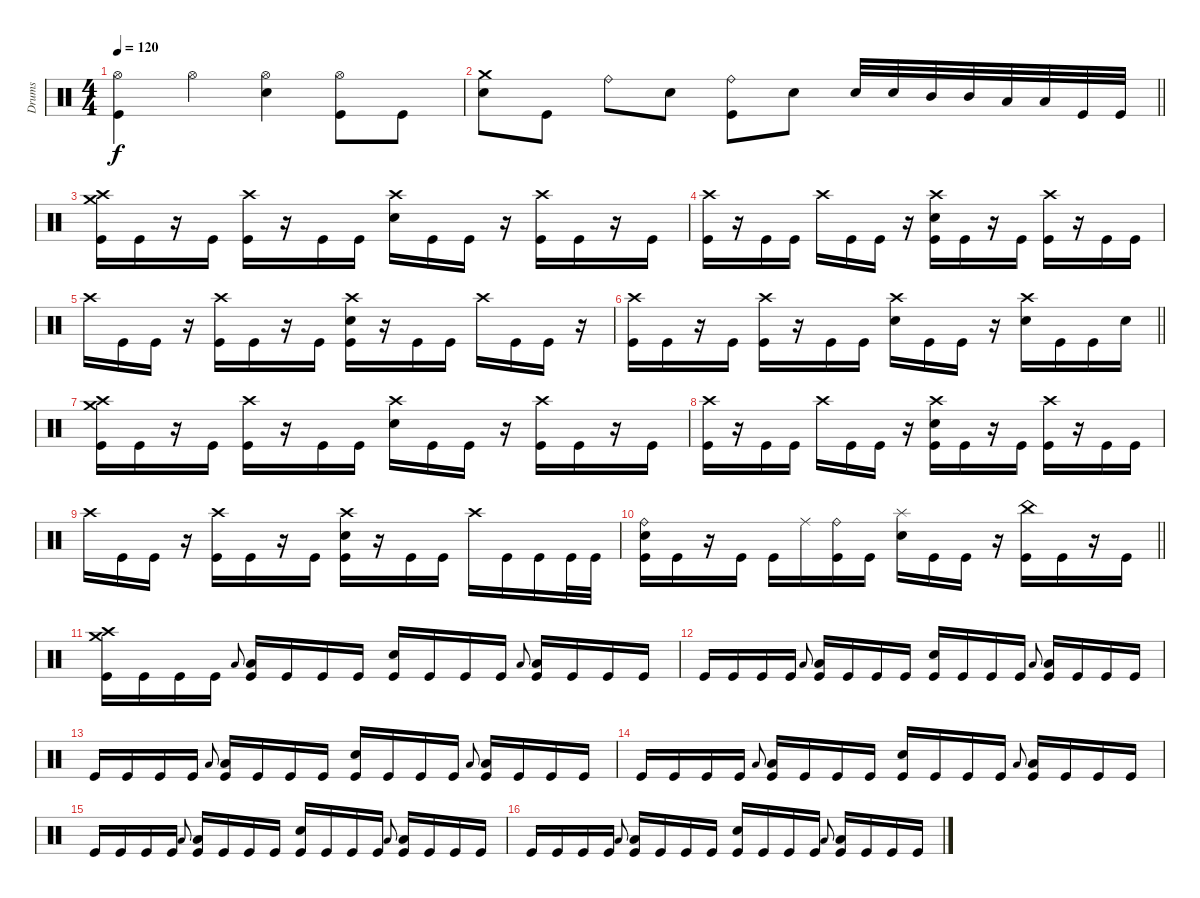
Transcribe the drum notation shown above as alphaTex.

\track ("Drums" "Drums") {instrument percussion}
\staff
\articulation defaults
\ts (4 4)
\tempo 120
\clef neutral
\ks c
("Hi-Hat (open)" "Kick (hit)").4{dy f} "Hi-Hat (open)".4 ("Hi-Hat (open)" "Electric Snare (hit)").4 ("Hi-Hat (open)" "Kick (hit)").8 "Kick (hit)".8 |
\barLineRight lightlight
("Crash medium (hit)" "Electric Snare (hit)").8 "Kick (hit)".8 "Ride (bell)".8 "Electric Snare (hit)".8 ("Ride (bell)" "Kick (hit)").8 "Electric Snare (hit)".8 "Electric Snare (hit)".32 "Electric Snare (hit)".32 "Mid Tom (hit)".32 "Mid Tom (hit)".32 "Low Tom (hit)".32 "Low Tom (hit)".32 "Kick (hit)".32 "Kick (hit)".32 |
\section ("" "")
("Crash high (hit)" "Crash medium (hit)" "Kick (hit)").16 "Kick (hit)".16 r.16 "Kick (hit)".16 ("Crash high (hit)" "Kick (hit)").16 r.16 "Kick (hit)".16 "Kick (hit)".16 ("Crash high (hit)" "Electric Snare (hit)").16 "Kick (hit)".16 "Kick (hit)".16 r.16 ("Crash high (hit)" "Kick (hit)").16 "Kick (hit)".16 r.16 "Kick (hit)".16 |
("Crash high (hit)" "Kick (hit)").16 r.16 "Kick (hit)".16 "Kick (hit)".16 "Crash high (hit)".16 "Kick (hit)".16 "Kick (hit)".16 r.16 ("Crash high (hit)" "Electric Snare (hit)" "Kick (hit)").16 "Kick (hit)".16 r.16 "Kick (hit)".16 ("Crash high (hit)" "Kick (hit)").16 r.16 "Kick (hit)".16 "Kick (hit)".16 |
"Crash high (hit)".16 "Kick (hit)".16 "Kick (hit)".16 r.16 ("Crash high (hit)" "Kick (hit)").16 "Kick (hit)".16 r.16 "Kick (hit)".16 ("Crash high (hit)" "Electric Snare (hit)" "Kick (hit)").16 r.16 "Kick (hit)".16 "Kick (hit)".16 "Crash high (hit)".16 "Kick (hit)".16 "Kick (hit)".16 r.16 |
\barLineRight lightlight
("Crash high (hit)" "Kick (hit)").16 "Kick (hit)".16 r.16 "Kick (hit)".16 ("Crash high (hit)" "Kick (hit)").16 r.16 "Kick (hit)".16 "Kick (hit)".16 ("Crash high (hit)" "Electric Snare (hit)").16 "Kick (hit)".16 "Kick (hit)".16 r.16 ("Crash high (hit)" "Electric Snare (hit)").16 "Kick (hit)".16 "Kick (hit)".16 "Electric Snare (hit)".16 |
("Crash high (hit)" "Crash medium (hit)" "Kick (hit)").16 "Kick (hit)".16 r.16 "Kick (hit)".16 ("Crash high (hit)" "Kick (hit)").16 r.16 "Kick (hit)".16 "Kick (hit)".16 ("Crash high (hit)" "Electric Snare (hit)").16 "Kick (hit)".16 "Kick (hit)".16 r.16 ("Crash high (hit)" "Kick (hit)").16 "Kick (hit)".16 r.16 "Kick (hit)".16 |
("Crash high (hit)" "Kick (hit)").16 r.16 "Kick (hit)".16 "Kick (hit)".16 "Crash high (hit)".16 "Kick (hit)".16 "Kick (hit)".16 r.16 ("Crash high (hit)" "Electric Snare (hit)" "Kick (hit)").16 "Kick (hit)".16 r.16 "Kick (hit)".16 ("Crash high (hit)" "Kick (hit)").16 r.16 "Kick (hit)".16 "Kick (hit)".16 |
"Crash high (hit)".16 "Kick (hit)".16 "Kick (hit)".16 r.16 ("Crash high (hit)" "Kick (hit)").16 "Kick (hit)".16 r.16 "Kick (hit)".16 ("Crash high (hit)" "Electric Snare (hit)" "Kick (hit)").16 r.16 "Kick (hit)".16 "Kick (hit)".16 "Crash high (hit)".16 "Kick (hit)".16 "Kick (hit)".16 "Kick (hit)".32 "Kick (hit)".32 |
\barLineRight lightlight
("Ride (bell)" "Electric Snare (hit)" "Kick (hit)").16 "Kick (hit)".16 r.16 "Kick (hit)".16 "Kick (hit)".16 "Ride (middle)".16 ("Ride (bell)" "Kick (hit)").16 "Kick (hit)".16 ("Splash (hit)" "Electric Snare (hit)").16 "Kick (hit)".16 "Kick (hit)".16 r.16 ("China (hit)" "Kick (hit)").16 "Kick (hit)".16 r.16 "Kick (hit)".16 |
\section ("" "")
("Crash high (hit)" "Crash medium (hit)" "Kick (hit)").16 "Kick (hit)".16 "Kick (hit)".16 "Kick (hit)".16 "Low Floor Tom (hit)".8{gr onbeat} ("Low Floor Tom (hit)" "Kick (hit)").16 "Kick (hit)".16 "Kick (hit)".16 "Kick (hit)".16 ("Electric Snare (hit)" "Kick (hit)").16 "Kick (hit)".16 "Kick (hit)".16 "Kick (hit)".16 "Low Floor Tom (hit)".8{gr onbeat} ("Low Floor Tom (hit)" "Kick (hit)").16 "Kick (hit)".16 "Kick (hit)".16 "Kick (hit)".16 |
"Kick (hit)".16 "Kick (hit)".16 "Kick (hit)".16 "Kick (hit)".16 "Low Floor Tom (hit)".8{gr onbeat} ("Low Floor Tom (hit)" "Kick (hit)").16 "Kick (hit)".16 "Kick (hit)".16 "Kick (hit)".16 ("Electric Snare (hit)" "Kick (hit)").16 "Kick (hit)".16 "Kick (hit)".16 "Kick (hit)".16 "Low Floor Tom (hit)".8{gr onbeat} ("Low Floor Tom (hit)" "Kick (hit)").16 "Kick (hit)".16 "Kick (hit)".16 "Kick (hit)".16 |
"Kick (hit)".16 "Kick (hit)".16 "Kick (hit)".16 "Kick (hit)".16 "Low Floor Tom (hit)".8{gr onbeat} ("Low Floor Tom (hit)" "Kick (hit)").16 "Kick (hit)".16 "Kick (hit)".16 "Kick (hit)".16 ("Electric Snare (hit)" "Kick (hit)").16 "Kick (hit)".16 "Kick (hit)".16 "Kick (hit)".16 "Low Floor Tom (hit)".8{gr onbeat} ("Low Floor Tom (hit)" "Kick (hit)").16 "Kick (hit)".16 "Kick (hit)".16 "Kick (hit)".16 |
"Kick (hit)".16 "Kick (hit)".16 "Kick (hit)".16 "Kick (hit)".16 "Low Floor Tom (hit)".8{gr onbeat} ("Low Floor Tom (hit)" "Kick (hit)").16 "Kick (hit)".16 "Kick (hit)".16 "Kick (hit)".16 ("Electric Snare (hit)" "Kick (hit)").16 "Kick (hit)".16 "Kick (hit)".16 "Kick (hit)".16 "Low Floor Tom (hit)".8{gr onbeat} ("Low Floor Tom (hit)" "Kick (hit)").16 "Kick (hit)".16 "Kick (hit)".16 "Kick (hit)".16 |
"Kick (hit)".16 "Kick (hit)".16 "Kick (hit)".16 "Kick (hit)".16 "Low Floor Tom (hit)".8{gr onbeat} ("Low Floor Tom (hit)" "Kick (hit)").16 "Kick (hit)".16 "Kick (hit)".16 "Kick (hit)".16 ("Electric Snare (hit)" "Kick (hit)").16 "Kick (hit)".16 "Kick (hit)".16 "Kick (hit)".16 "Low Floor Tom (hit)".8{gr onbeat} ("Low Floor Tom (hit)" "Kick (hit)").16 "Kick (hit)".16 "Kick (hit)".16 "Kick (hit)".16 |
"Kick (hit)".16 "Kick (hit)".16 "Kick (hit)".16 "Kick (hit)".16 "Low Floor Tom (hit)".8{gr onbeat} ("Low Floor Tom (hit)" "Kick (hit)").16 "Kick (hit)".16 "Kick (hit)".16 "Kick (hit)".16 ("Electric Snare (hit)" "Kick (hit)").16 "Kick (hit)".16 "Kick (hit)".16 "Kick (hit)".16 "Low Floor Tom (hit)".8{gr onbeat} ("Low Floor Tom (hit)" "Kick (hit)").16 "Kick (hit)".16 "Kick (hit)".16 "Kick (hit)".16
